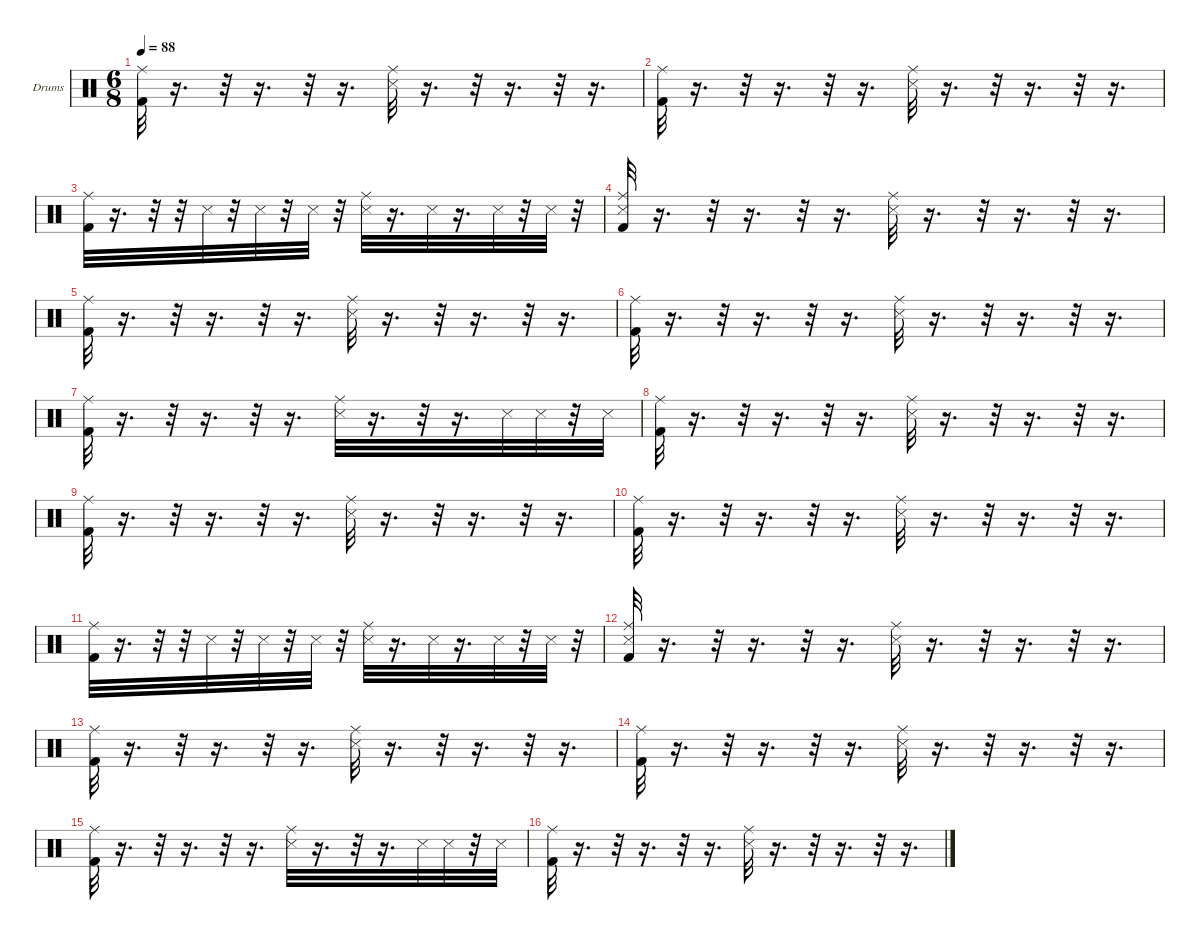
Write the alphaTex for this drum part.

\hideDynamics
\bracketExtendMode nobrackets
\firstSystemTrackNameOrientation horizontal
\otherSystemsTrackNameOrientation horizontal
\track ("Drumkit" "Drums") {instrument percussion}
\staff {score}
\articulation defaults
\ts (6 8)
\tempo 88
\clef neutral
\ks c
("Kick (hit) 2" "Ride (middle)").32{dy fff} r.16{d} r.32 r.16{d} r.32 r.16{d} ("Snare (side stick) 3" "Ride (middle)").32{dy ff} r.16{d} r.32 r.16{d} r.32 r.16{d} |
("Kick (hit) 2" "Ride (middle)").32{dy fff} r.16{d} r.32 r.16{d} r.32 r.16{d} ("Snare (side stick) 3" "Ride (middle)").32{dy ff} r.16{d} r.32 r.16{d} r.32 r.16{d} |
("Kick (hit) 2" "Ride (middle)").32{dy fff} r.16{d} r.32 r.32 "Snare (side stick) 3".32{dy f} r.32 "Snare (side stick) 3".32{dy ff} r.32 "Snare (side stick) 3".32{dy f} r.32 ("Snare (side stick) 3" "Ride (middle)").32{dy ff} r.16{d} "Snare (side stick) 3".32 r.16{d} "Snare (side stick) 3".32{dy f} r.32 "Snare (side stick) 3".32{dy mf} r.32 |
("Kick (hit) 2" "Snare (side stick) 3" "Ride (middle)").32{dy fff} r.16{d} r.32 r.16{d} r.32 r.16{d} ("Snare (side stick) 3" "Ride (middle)").32{dy ff} r.16{d} r.32 r.16{d} r.32 r.16{d} |
("Kick (hit) 2" "Ride (middle)").32{dy fff} r.16{d} r.32 r.16{d} r.32 r.16{d} ("Snare (side stick) 3" "Ride (middle)").32{dy ff} r.16{d} r.32 r.16{d} r.32 r.16{d} |
("Kick (hit) 2" "Ride (middle)").32{dy fff} r.16{d} r.32 r.16{d} r.32 r.16{d} ("Snare (side stick) 3" "Ride (middle)").32{dy ff} r.16{d} r.32 r.16{d} r.32 r.16{d} |
("Kick (hit) 2" "Ride (middle)").32{dy fff} r.16{d} r.32 r.16{d} r.32 r.16{d} ("Snare (side stick) 3" "Ride (middle)").32{dy ff} r.16{d} r.32 r.16{d} "Snare (side stick) 3".32{dy f} "Snare (side stick) 3".32{dy mf} r.32 "Snare (side stick) 3".32{dy f} |
("Kick (hit) 2" "Ride (middle)").32{dy fff} r.16{d} r.32 r.16{d} r.32 r.16{d} ("Snare (side stick) 3" "Ride (middle)").32{dy ff} r.16{d} r.32 r.16{d} r.32 r.16{d} |
("Kick (hit) 2" "Ride (middle)").32{dy fff} r.16{d} r.32 r.16{d} r.32 r.16{d} ("Snare (side stick) 3" "Ride (middle)").32{dy ff} r.16{d} r.32 r.16{d} r.32 r.16{d} |
("Kick (hit) 2" "Ride (middle)").32{dy fff} r.16{d} r.32 r.16{d} r.32 r.16{d} ("Snare (side stick) 3" "Ride (middle)").32{dy ff} r.16{d} r.32 r.16{d} r.32 r.16{d} |
("Kick (hit) 2" "Ride (middle)").32{dy fff} r.16{d} r.32 r.32 "Snare (side stick) 3".32{dy f} r.32 "Snare (side stick) 3".32{dy ff} r.32 "Snare (side stick) 3".32{dy f} r.32 ("Snare (side stick) 3" "Ride (middle)").32{dy ff} r.16{d} "Snare (side stick) 3".32 r.16{d} "Snare (side stick) 3".32{dy f} r.32 "Snare (side stick) 3".32{dy mf} r.32 |
("Kick (hit) 2" "Snare (side stick) 3" "Ride (middle)").32{dy fff} r.16{d} r.32 r.16{d} r.32 r.16{d} ("Snare (side stick) 3" "Ride (middle)").32{dy ff} r.16{d} r.32 r.16{d} r.32 r.16{d} |
("Kick (hit) 2" "Ride (middle)").32{dy fff} r.16{d} r.32 r.16{d} r.32 r.16{d} ("Snare (side stick) 3" "Ride (middle)").32{dy ff} r.16{d} r.32 r.16{d} r.32 r.16{d} |
("Kick (hit) 2" "Ride (middle)").32{dy fff} r.16{d} r.32 r.16{d} r.32 r.16{d} ("Snare (side stick) 3" "Ride (middle)").32{dy ff} r.16{d} r.32 r.16{d} r.32 r.16{d} |
("Kick (hit) 2" "Ride (middle)").32{dy fff} r.16{d} r.32 r.16{d} r.32 r.16{d} ("Snare (side stick) 3" "Ride (middle)").32{dy ff} r.16{d} r.32 r.16{d} "Snare (side stick) 3".32{dy f} "Snare (side stick) 3".32{dy mf} r.32 "Snare (side stick) 3".32{dy f} |
("Kick (hit) 2" "Ride (middle)").32{dy fff} r.16{d} r.32 r.16{d} r.32 r.16{d} ("Snare (side stick) 3" "Ride (middle)").32{dy ff} r.16{d} r.32 r.16{d} r.32 r.16{d}
